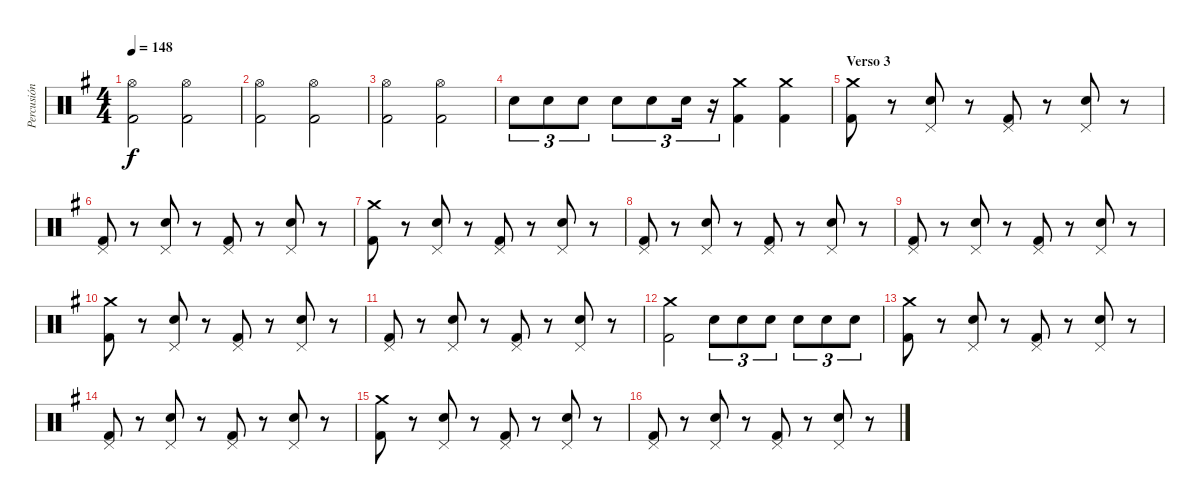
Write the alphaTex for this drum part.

\track ("Percusión" "Percusión") {instrument percussion}
\staff {score}
\articulation defaults
\ts (4 4)
\tempo 148
\clef neutral
\ks g
("Kick (hit) 2" "Hi-Hat (open)").2{dy f} ("Kick (hit) 2" "Hi-Hat (open)").2 |
("Kick (hit) 2" "Hi-Hat (open)").2 ("Kick (hit) 2" "Hi-Hat (open)").2 |
("Kick (hit) 2" "Hi-Hat (open)").2 ("Kick (hit) 2" "Hi-Hat (open)").2 |
"Snare (hit) 2".8{tu (3 2)} "Snare (hit) 2".8{tu (3 2)} "Snare (hit) 2".8{tu (3 2)} "Snare (hit) 2".8{tu (3 2)} "Snare (hit) 2".8{tu (3 2)} "Snare (hit) 2".16{tu (3 2)} r.16{tu (3 2)} ("Crash medium (hit)" "Kick (hit) 2").4 ("Crash medium (hit)" "Kick (hit) 2").4 |
\section ("" "Verso 3")
("Crash medium (hit)" "Kick (hit) 2").8 r.8 ("Pedal Hi-Hat (hit)" "Snare (hit) 2").8 r.8 ("Pedal Hi-Hat (hit)" "Kick (hit) 2").8 r.8 ("Pedal Hi-Hat (hit)" "Snare (hit) 2").8 r.8 |
("Pedal Hi-Hat (hit)" "Kick (hit) 2").8 r.8 ("Pedal Hi-Hat (hit)" "Snare (hit) 2").8 r.8 ("Pedal Hi-Hat (hit)" "Kick (hit) 2").8 r.8 ("Pedal Hi-Hat (hit)" "Snare (hit) 2").8 r.8 |
("Crash medium (hit)" "Kick (hit) 2").8 r.8 ("Pedal Hi-Hat (hit)" "Snare (hit) 2").8 r.8 ("Pedal Hi-Hat (hit)" "Kick (hit) 2").8 r.8 ("Pedal Hi-Hat (hit)" "Snare (hit) 2").8 r.8 |
("Pedal Hi-Hat (hit)" "Kick (hit) 2").8 r.8 ("Pedal Hi-Hat (hit)" "Snare (hit) 2").8 r.8 ("Pedal Hi-Hat (hit)" "Kick (hit) 2").8 r.8 ("Pedal Hi-Hat (hit)" "Snare (hit) 2").8 r.8 |
("Pedal Hi-Hat (hit)" "Kick (hit) 2").8 r.8 ("Pedal Hi-Hat (hit)" "Snare (hit) 2").8 r.8 ("Pedal Hi-Hat (hit)" "Kick (hit) 2").8 r.8 ("Pedal Hi-Hat (hit)" "Snare (hit) 2").8 r.8 |
("Crash medium (hit)" "Kick (hit) 2").8 r.8 ("Pedal Hi-Hat (hit)" "Snare (hit) 2").8 r.8 ("Pedal Hi-Hat (hit)" "Kick (hit) 2").8 r.8 ("Pedal Hi-Hat (hit)" "Snare (hit) 2").8 r.8 |
("Pedal Hi-Hat (hit)" "Kick (hit) 2").8 r.8 ("Pedal Hi-Hat (hit)" "Snare (hit) 2").8 r.8 ("Pedal Hi-Hat (hit)" "Kick (hit) 2").8 r.8 ("Pedal Hi-Hat (hit)" "Snare (hit) 2").8 r.8 |
("Crash medium (hit)" "Kick (hit) 2").2 "Snare (hit) 2".8{tu (3 2)} "Snare (hit) 2".8{tu (3 2)} "Snare (hit) 2".8{tu (3 2)} "Snare (hit) 2".8{tu (3 2)} "Snare (hit) 2".8{tu (3 2)} "Snare (hit) 2".8{tu (3 2)} |
("Crash medium (hit)" "Kick (hit) 2").8 r.8 ("Pedal Hi-Hat (hit)" "Snare (hit) 2").8 r.8 ("Pedal Hi-Hat (hit)" "Kick (hit) 2").8 r.8 ("Pedal Hi-Hat (hit)" "Snare (hit) 2").8 r.8 |
("Pedal Hi-Hat (hit)" "Kick (hit) 2").8 r.8 ("Pedal Hi-Hat (hit)" "Snare (hit) 2").8 r.8 ("Pedal Hi-Hat (hit)" "Kick (hit) 2").8 r.8 ("Pedal Hi-Hat (hit)" "Snare (hit) 2").8 r.8 |
("Crash medium (hit)" "Kick (hit) 2").8 r.8 ("Pedal Hi-Hat (hit)" "Snare (hit) 2").8 r.8 ("Pedal Hi-Hat (hit)" "Kick (hit) 2").8 r.8 ("Pedal Hi-Hat (hit)" "Snare (hit) 2").8 r.8 |
("Pedal Hi-Hat (hit)" "Kick (hit) 2").8 r.8 ("Pedal Hi-Hat (hit)" "Snare (hit) 2").8 r.8 ("Pedal Hi-Hat (hit)" "Kick (hit) 2").8 r.8 ("Pedal Hi-Hat (hit)" "Snare (hit) 2").8 r.8
